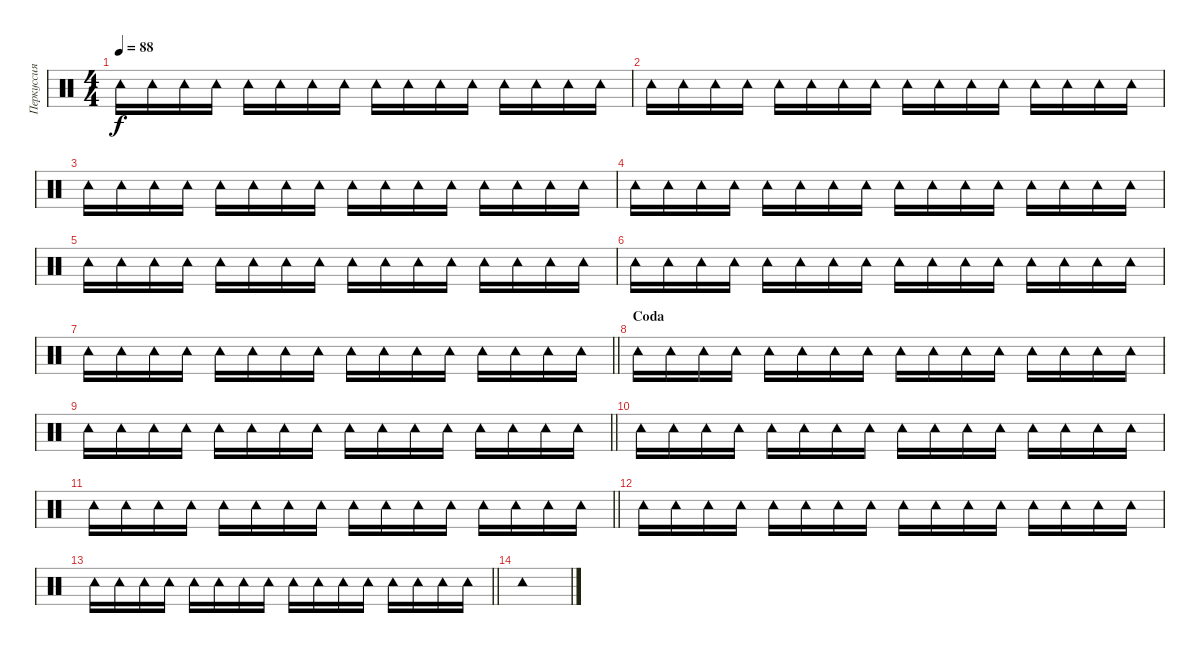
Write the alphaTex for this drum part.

\track ("Перкуссия 1" "Перкуссия ") {instrument percussion}
\staff {score}
\articulation defaults
\ts (4 4)
\tempo 88
\clef neutral
\ks c "Tambourine (hit)".16{dy f} "Tambourine (hit)".16 "Tambourine (hit)".16 "Tambourine (hit)".16 "Tambourine (hit)".16 "Tambourine (hit)".16 "Tambourine (hit)".16 "Tambourine (hit)".16 "Tambourine (hit)".16 "Tambourine (hit)".16 "Tambourine (hit)".16 "Tambourine (hit)".16 "Tambourine (hit)".16 "Tambourine (hit)".16 "Tambourine (hit)".16 "Tambourine (hit)".16
|
"Tambourine (hit)".16 "Tambourine (hit)".16 "Tambourine (hit)".16 "Tambourine (hit)".16 "Tambourine (hit)".16 "Tambourine (hit)".16 "Tambourine (hit)".16 "Tambourine (hit)".16 "Tambourine (hit)".16 "Tambourine (hit)".16 "Tambourine (hit)".16 "Tambourine (hit)".16 "Tambourine (hit)".16 "Tambourine (hit)".16 "Tambourine (hit)".16 "Tambourine (hit)".16 |
"Tambourine (hit)".16 "Tambourine (hit)".16 "Tambourine (hit)".16 "Tambourine (hit)".16 "Tambourine (hit)".16 "Tambourine (hit)".16 "Tambourine (hit)".16 "Tambourine (hit)".16 "Tambourine (hit)".16 "Tambourine (hit)".16 "Tambourine (hit)".16 "Tambourine (hit)".16 "Tambourine (hit)".16 "Tambourine (hit)".16 "Tambourine (hit)".16 "Tambourine (hit)".16 |
"Tambourine (hit)".16 "Tambourine (hit)".16 "Tambourine (hit)".16 "Tambourine (hit)".16 "Tambourine (hit)".16 "Tambourine (hit)".16 "Tambourine (hit)".16 "Tambourine (hit)".16 "Tambourine (hit)".16 "Tambourine (hit)".16 "Tambourine (hit)".16 "Tambourine (hit)".16 "Tambourine (hit)".16 "Tambourine (hit)".16 "Tambourine (hit)".16 "Tambourine (hit)".16 |
"Tambourine (hit)".16 "Tambourine (hit)".16 "Tambourine (hit)".16 "Tambourine (hit)".16 "Tambourine (hit)".16 "Tambourine (hit)".16 "Tambourine (hit)".16 "Tambourine (hit)".16 "Tambourine (hit)".16 "Tambourine (hit)".16 "Tambourine (hit)".16 "Tambourine (hit)".16 "Tambourine (hit)".16 "Tambourine (hit)".16 "Tambourine (hit)".16 "Tambourine (hit)".16 |
"Tambourine (hit)".16 "Tambourine (hit)".16 "Tambourine (hit)".16 "Tambourine (hit)".16 "Tambourine (hit)".16 "Tambourine (hit)".16 "Tambourine (hit)".16 "Tambourine (hit)".16 "Tambourine (hit)".16 "Tambourine (hit)".16 "Tambourine (hit)".16 "Tambourine (hit)".16 "Tambourine (hit)".16 "Tambourine (hit)".16 "Tambourine (hit)".16 "Tambourine (hit)".16 |
\barLineRight lightlight "Tambourine (hit)".16 "Tambourine (hit)".16 "Tambourine (hit)".16 "Tambourine (hit)".16 "Tambourine (hit)".16 "Tambourine (hit)".16 "Tambourine (hit)".16 "Tambourine (hit)".16 "Tambourine (hit)".16 "Tambourine (hit)".16 "Tambourine (hit)".16 "Tambourine (hit)".16 "Tambourine (hit)".16 "Tambourine (hit)".16 "Tambourine (hit)".16 "Tambourine (hit)".16
|
\section ("" "Coda")
"Tambourine (hit)".16 "Tambourine (hit)".16 "Tambourine (hit)".16 "Tambourine (hit)".16 "Tambourine (hit)".16 "Tambourine (hit)".16 "Tambourine (hit)".16 "Tambourine (hit)".16 "Tambourine (hit)".16 "Tambourine (hit)".16 "Tambourine (hit)".16 "Tambourine (hit)".16 "Tambourine (hit)".16 "Tambourine (hit)".16 "Tambourine (hit)".16 "Tambourine (hit)".16 |
\barLineRight lightlight "Tambourine (hit)".16 "Tambourine (hit)".16 "Tambourine (hit)".16 "Tambourine (hit)".16 "Tambourine (hit)".16 "Tambourine (hit)".16 "Tambourine (hit)".16 "Tambourine (hit)".16 "Tambourine (hit)".16 "Tambourine (hit)".16 "Tambourine (hit)".16 "Tambourine (hit)".16 "Tambourine (hit)".16 "Tambourine (hit)".16 "Tambourine (hit)".16 "Tambourine (hit)".16
|
"Tambourine (hit)".16 "Tambourine (hit)".16 "Tambourine (hit)".16 "Tambourine (hit)".16 "Tambourine (hit)".16 "Tambourine (hit)".16 "Tambourine (hit)".16 "Tambourine (hit)".16 "Tambourine (hit)".16 "Tambourine (hit)".16 "Tambourine (hit)".16 "Tambourine (hit)".16 "Tambourine (hit)".16 "Tambourine (hit)".16 "Tambourine (hit)".16 "Tambourine (hit)".16 |
\barLineRight lightlight "Tambourine (hit)".16 "Tambourine (hit)".16 "Tambourine (hit)".16 "Tambourine (hit)".16 "Tambourine (hit)".16 "Tambourine (hit)".16 "Tambourine (hit)".16 "Tambourine (hit)".16 "Tambourine (hit)".16 "Tambourine (hit)".16 "Tambourine (hit)".16 "Tambourine (hit)".16 "Tambourine (hit)".16 "Tambourine (hit)".16 "Tambourine (hit)".16 "Tambourine (hit)".16
|
"Tambourine (hit)".16 "Tambourine (hit)".16 "Tambourine (hit)".16 "Tambourine (hit)".16 "Tambourine (hit)".16 "Tambourine (hit)".16 "Tambourine (hit)".16 "Tambourine (hit)".16 "Tambourine (hit)".16 "Tambourine (hit)".16 "Tambourine (hit)".16 "Tambourine (hit)".16 "Tambourine (hit)".16 "Tambourine (hit)".16 "Tambourine (hit)".16 "Tambourine (hit)".16 |
\barLineRight lightlight "Tambourine (hit)".16 "Tambourine (hit)".16 "Tambourine (hit)".16 "Tambourine (hit)".16 "Tambourine (hit)".16 "Tambourine (hit)".16 "Tambourine (hit)".16 "Tambourine (hit)".16 "Tambourine (hit)".16 "Tambourine (hit)".16 "Tambourine (hit)".16 "Tambourine (hit)".16 "Tambourine (hit)".16 "Tambourine (hit)".16 "Tambourine (hit)".16 "Tambourine (hit)".16
|
"Tambourine (hit)".1
